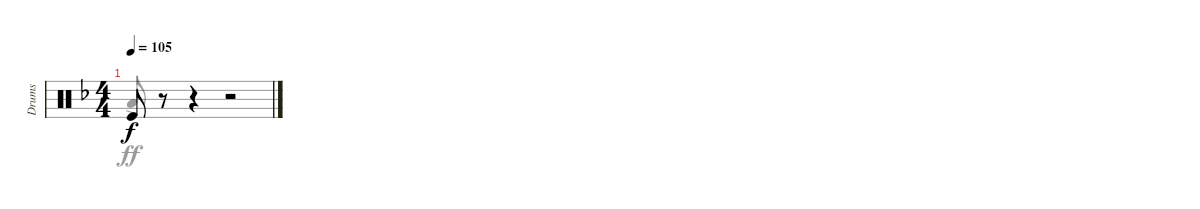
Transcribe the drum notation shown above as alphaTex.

\track ("Drums" "Drums") {instrument percussion}
\staff {score}
\articulation defaults
\voice
\ts (4 4)
\tempo 105
\clef neutral
\ks dminor "Kick (hit)".8{dy f}
r.8 r.4 r.2
\voice
\clef neutral
\ottava regular
\simile none
\ks dminor "Low Tom (hit)"{ac}.8{dy ff beam Up}
r.8 r.4 r.2
